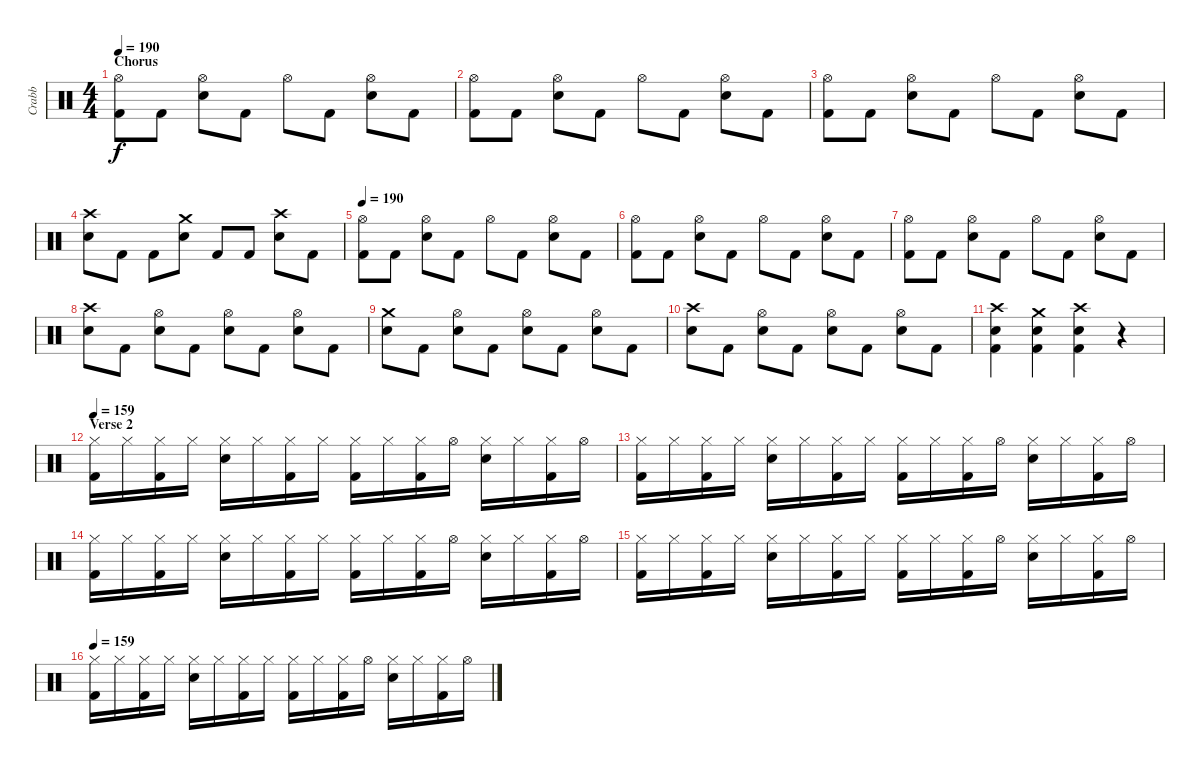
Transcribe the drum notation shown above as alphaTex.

\track ("Crabb" "Crabb") {instrument percussion}
\staff {score}
\articulation defaults
\ts (4 4)
\section ("" "Chorus")
\tempo 200
\tempo 190
\clef neutral
\ks c
("Hi-Hat (open)" "Kick (hit) 2").8{dy f} "Kick (hit) 2".8 ("Hi-Hat (open)" "Electric Snare (hit)").8 "Kick (hit) 2".8 "Hi-Hat (open)".8 "Kick (hit) 2".8 ("Hi-Hat (open)" "Electric Snare (hit)").8 "Kick (hit) 2".8 |
("Hi-Hat (open)" "Kick (hit) 2").8 "Kick (hit) 2".8 ("Hi-Hat (open)" "Electric Snare (hit)").8 "Kick (hit) 2".8 "Hi-Hat (open)".8 "Kick (hit) 2".8 ("Hi-Hat (open)" "Electric Snare (hit)").8 "Kick (hit) 2".8 |
("Hi-Hat (open)" "Kick (hit) 2").8 "Kick (hit) 2".8 ("Hi-Hat (open)" "Electric Snare (hit)").8 "Kick (hit) 2".8 "Hi-Hat (open)".8 "Kick (hit) 2".8 ("Hi-Hat (open)" "Electric Snare (hit)").8 "Kick (hit) 2".8 |
("Crash high (hit)" "Electric Snare (hit)").8 "Kick (hit) 2".8 "Kick (hit) 2".8 ("Crash medium (hit)" "Electric Snare (hit)").8 "Kick (hit) 2".8 "Kick (hit) 2".8 ("Crash high (hit)" "Electric Snare (hit)").8 "Kick (hit) 2".8 |
\tempo 190
("Hi-Hat (open)" "Kick (hit) 2").8 "Kick (hit) 2".8 ("Hi-Hat (open)" "Electric Snare (hit)").8 "Kick (hit) 2".8 "Hi-Hat (open)".8 "Kick (hit) 2".8 ("Hi-Hat (open)" "Electric Snare (hit)").8 "Kick (hit) 2".8 |
("Hi-Hat (open)" "Kick (hit) 2").8 "Kick (hit) 2".8 ("Hi-Hat (open)" "Electric Snare (hit)").8 "Kick (hit) 2".8 "Hi-Hat (open)".8 "Kick (hit) 2".8 ("Hi-Hat (open)" "Electric Snare (hit)").8 "Kick (hit) 2".8 |
("Hi-Hat (open)" "Kick (hit) 2").8 "Kick (hit) 2".8 ("Hi-Hat (open)" "Electric Snare (hit)").8 "Kick (hit) 2".8 "Hi-Hat (open)".8 "Kick (hit) 2".8 ("Hi-Hat (open)" "Electric Snare (hit)").8 "Kick (hit) 2".8 |
("Crash high (hit)" "Electric Snare (hit)").8 "Kick (hit) 2".8 ("Hi-Hat (open)" "Electric Snare (hit)").8 "Kick (hit) 2".8 ("Hi-Hat (open)" "Electric Snare (hit)").8 "Kick (hit) 2".8 ("Hi-Hat (open)" "Electric Snare (hit)").8 "Kick (hit) 2".8 |
("Crash medium (hit)" "Electric Snare (hit)").8 "Kick (hit) 2".8 ("Hi-Hat (open)" "Electric Snare (hit)").8 "Kick (hit) 2".8 ("Hi-Hat (open)" "Electric Snare (hit)").8 "Kick (hit) 2".8 ("Hi-Hat (open)" "Electric Snare (hit)").8 "Kick (hit) 2".8 |
("Crash high (hit)" "Electric Snare (hit)").8 "Kick (hit) 2".8 ("Hi-Hat (open)" "Electric Snare (hit)").8 "Kick (hit) 2".8 ("Hi-Hat (open)" "Electric Snare (hit)").8 "Kick (hit) 2".8 ("Hi-Hat (open)" "Electric Snare (hit)").8 "Kick (hit) 2".8 |
("Crash high (hit)" "Electric Snare (hit)" "Kick (hit) 2").4 ("Crash medium (hit)" "Electric Snare (hit)" "Kick (hit) 2").4 ("Crash high (hit)" "Electric Snare (hit)" "Kick (hit) 2").4 r.4 |
\section ("" "Verse 2")
\tempo 159
("Hi-Hat (closed)" "Kick (hit) 2").16 "Hi-Hat (closed)".16 ("Hi-Hat (closed)" "Kick (hit) 2").16 "Hi-Hat (closed)".16 ("Hi-Hat (closed)" "Electric Snare (hit)").16 "Hi-Hat (closed)".16 ("Hi-Hat (closed)" "Kick (hit) 2").16 "Hi-Hat (closed)".16 ("Hi-Hat (closed)" "Kick (hit) 2").16 "Hi-Hat (closed)".16 ("Hi-Hat (closed)" "Kick (hit) 2").16 "Hi-Hat (open)".16 ("Hi-Hat (closed)" "Electric Snare (hit)").16 "Hi-Hat (closed)".16 ("Hi-Hat (closed)" "Kick (hit) 2").16 "Hi-Hat (open)".16 |
("Hi-Hat (closed)" "Kick (hit) 2").16 "Hi-Hat (closed)".16 ("Hi-Hat (closed)" "Kick (hit) 2").16 "Hi-Hat (closed)".16 ("Hi-Hat (closed)" "Electric Snare (hit)").16 "Hi-Hat (closed)".16 ("Hi-Hat (closed)" "Kick (hit) 2").16 "Hi-Hat (closed)".16 ("Hi-Hat (closed)" "Kick (hit) 2").16 "Hi-Hat (closed)".16 ("Hi-Hat (closed)" "Kick (hit) 2").16 "Hi-Hat (open)".16 ("Hi-Hat (closed)" "Electric Snare (hit)").16 "Hi-Hat (closed)".16 ("Hi-Hat (closed)" "Kick (hit) 2").16 "Hi-Hat (open)".16 |
("Hi-Hat (closed)" "Kick (hit) 2").16 "Hi-Hat (closed)".16 ("Hi-Hat (closed)" "Kick (hit) 2").16 "Hi-Hat (closed)".16 ("Hi-Hat (closed)" "Electric Snare (hit)").16 "Hi-Hat (closed)".16 ("Hi-Hat (closed)" "Kick (hit) 2").16 "Hi-Hat (closed)".16 ("Hi-Hat (closed)" "Kick (hit) 2").16 "Hi-Hat (closed)".16 ("Hi-Hat (closed)" "Kick (hit) 2").16 "Hi-Hat (open)".16 ("Hi-Hat (closed)" "Electric Snare (hit)").16 "Hi-Hat (closed)".16 ("Hi-Hat (closed)" "Kick (hit) 2").16 "Hi-Hat (open)".16 |
("Hi-Hat (closed)" "Kick (hit) 2").16 "Hi-Hat (closed)".16 ("Hi-Hat (closed)" "Kick (hit) 2").16 "Hi-Hat (closed)".16 ("Hi-Hat (closed)" "Electric Snare (hit)").16 "Hi-Hat (closed)".16 ("Hi-Hat (closed)" "Kick (hit) 2").16 "Hi-Hat (closed)".16 ("Hi-Hat (closed)" "Kick (hit) 2").16 "Hi-Hat (closed)".16 ("Hi-Hat (closed)" "Kick (hit) 2").16 "Hi-Hat (open)".16 ("Hi-Hat (closed)" "Electric Snare (hit)").16 "Hi-Hat (closed)".16 ("Hi-Hat (closed)" "Kick (hit) 2").16 "Hi-Hat (open)".16 |
\tempo 159
("Hi-Hat (closed)" "Kick (hit) 2").16 "Hi-Hat (closed)".16 ("Hi-Hat (closed)" "Kick (hit) 2").16 "Hi-Hat (closed)".16 ("Hi-Hat (closed)" "Electric Snare (hit)").16 "Hi-Hat (closed)".16 ("Hi-Hat (closed)" "Kick (hit) 2").16 "Hi-Hat (closed)".16 ("Hi-Hat (closed)" "Kick (hit) 2").16 "Hi-Hat (closed)".16 ("Hi-Hat (closed)" "Kick (hit) 2").16 "Hi-Hat (open)".16 ("Hi-Hat (closed)" "Electric Snare (hit)").16 "Hi-Hat (closed)".16 ("Hi-Hat (closed)" "Kick (hit) 2").16 "Hi-Hat (open)".16
